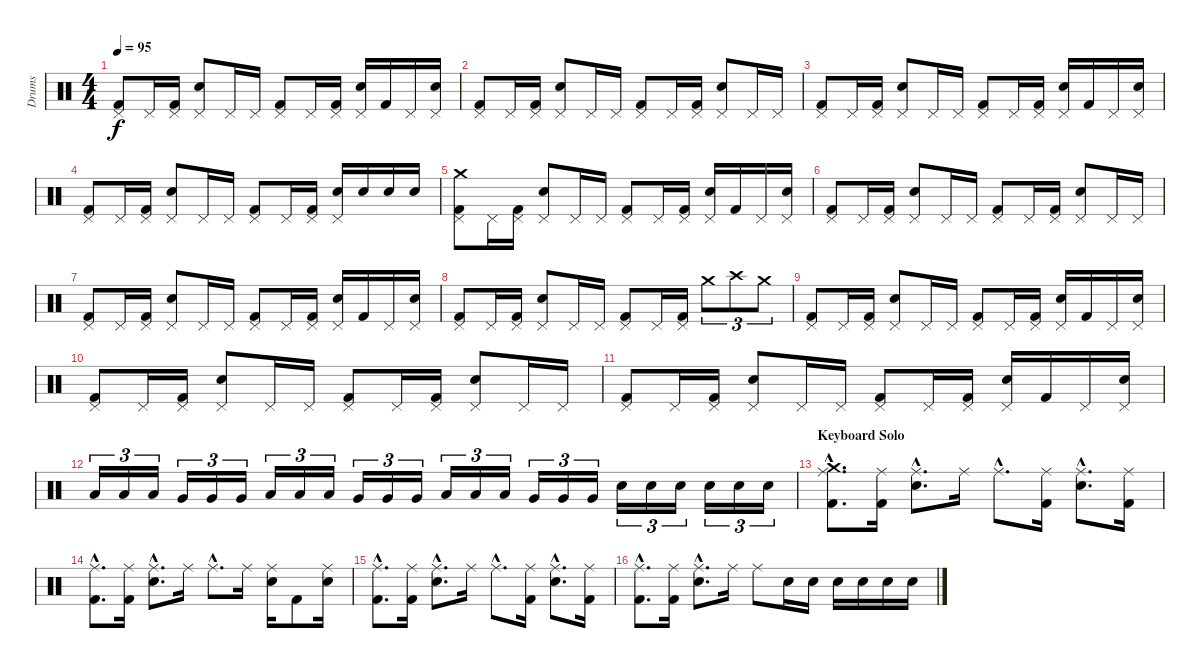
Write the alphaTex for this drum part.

\track ("Drums" "Drums") {instrument percussion}
\staff {score}
\articulation defaults
\ts (4 4)
\tempo 95
\clef neutral
\ks c
("Pedal Hi-Hat (hit)" "Kick (hit) 2").8{dy f} "Pedal Hi-Hat (hit)".16 ("Pedal Hi-Hat (hit)" "Kick (hit) 2").16 ("Pedal Hi-Hat (hit)" "Snare (hit) 2").8 "Pedal Hi-Hat (hit)".16 "Pedal Hi-Hat (hit)".16 ("Pedal Hi-Hat (hit)" "Kick (hit) 2").8 "Pedal Hi-Hat (hit)".16 ("Pedal Hi-Hat (hit)" "Kick (hit) 2").16 ("Pedal Hi-Hat (hit)" "Snare (hit) 2").16 "Kick (hit) 2".16 "Pedal Hi-Hat (hit)".16 ("Pedal Hi-Hat (hit)" "Snare (hit) 2").16 |
("Pedal Hi-Hat (hit)" "Kick (hit) 2").8 "Pedal Hi-Hat (hit)".16 ("Pedal Hi-Hat (hit)" "Kick (hit) 2").16 ("Pedal Hi-Hat (hit)" "Snare (hit) 2").8 "Pedal Hi-Hat (hit)".16 "Pedal Hi-Hat (hit)".16 ("Pedal Hi-Hat (hit)" "Kick (hit) 2").8 "Pedal Hi-Hat (hit)".16 ("Pedal Hi-Hat (hit)" "Kick (hit) 2").16 ("Pedal Hi-Hat (hit)" "Snare (hit) 2").8 "Pedal Hi-Hat (hit)".16 "Pedal Hi-Hat (hit)".16 |
("Pedal Hi-Hat (hit)" "Kick (hit) 2").8 "Pedal Hi-Hat (hit)".16 ("Pedal Hi-Hat (hit)" "Kick (hit) 2").16 ("Pedal Hi-Hat (hit)" "Snare (hit) 2").8 "Pedal Hi-Hat (hit)".16 "Pedal Hi-Hat (hit)".16 ("Pedal Hi-Hat (hit)" "Kick (hit) 2").8 "Pedal Hi-Hat (hit)".16 ("Pedal Hi-Hat (hit)" "Kick (hit) 2").16 ("Pedal Hi-Hat (hit)" "Snare (hit) 2").16 "Kick (hit) 2".16 "Pedal Hi-Hat (hit)".16 ("Pedal Hi-Hat (hit)" "Snare (hit) 2").16 |
("Pedal Hi-Hat (hit)" "Kick (hit) 2").8 "Pedal Hi-Hat (hit)".16 ("Pedal Hi-Hat (hit)" "Kick (hit) 2").16 ("Pedal Hi-Hat (hit)" "Snare (hit) 2").8 "Pedal Hi-Hat (hit)".16 "Pedal Hi-Hat (hit)".16 ("Pedal Hi-Hat (hit)" "Kick (hit) 2").8 "Pedal Hi-Hat (hit)".16 ("Pedal Hi-Hat (hit)" "Kick (hit) 2").16 ("Pedal Hi-Hat (hit)" "Snare (hit) 2").16 "Snare (hit) 2".16 "Snare (hit) 2".16 "Snare (hit) 2".16 |
("Crash medium (hit)" "Pedal Hi-Hat (hit)" "Kick (hit) 2").8 "Pedal Hi-Hat (hit)".16 ("Pedal Hi-Hat (hit)" "Kick (hit) 2").16 ("Pedal Hi-Hat (hit)" "Snare (hit) 2").8 "Pedal Hi-Hat (hit)".16 "Pedal Hi-Hat (hit)".16 ("Pedal Hi-Hat (hit)" "Kick (hit) 2").8 "Pedal Hi-Hat (hit)".16 ("Pedal Hi-Hat (hit)" "Kick (hit) 2").16 ("Pedal Hi-Hat (hit)" "Snare (hit) 2").16 "Kick (hit) 2".16 "Pedal Hi-Hat (hit)".16 ("Pedal Hi-Hat (hit)" "Snare (hit) 2").16 |
("Pedal Hi-Hat (hit)" "Kick (hit) 2").8 "Pedal Hi-Hat (hit)".16 ("Pedal Hi-Hat (hit)" "Kick (hit) 2").16 ("Pedal Hi-Hat (hit)" "Snare (hit) 2").8 "Pedal Hi-Hat (hit)".16 "Pedal Hi-Hat (hit)".16 ("Pedal Hi-Hat (hit)" "Kick (hit) 2").8 "Pedal Hi-Hat (hit)".16 ("Pedal Hi-Hat (hit)" "Kick (hit) 2").16 ("Pedal Hi-Hat (hit)" "Snare (hit) 2").8 "Pedal Hi-Hat (hit)".16 "Pedal Hi-Hat (hit)".16 |
("Pedal Hi-Hat (hit)" "Kick (hit) 2").8 "Pedal Hi-Hat (hit)".16 ("Pedal Hi-Hat (hit)" "Kick (hit) 2").16 ("Pedal Hi-Hat (hit)" "Snare (hit) 2").8 "Pedal Hi-Hat (hit)".16 "Pedal Hi-Hat (hit)".16 ("Pedal Hi-Hat (hit)" "Kick (hit) 2").8 "Pedal Hi-Hat (hit)".16 ("Pedal Hi-Hat (hit)" "Kick (hit) 2").16 ("Pedal Hi-Hat (hit)" "Snare (hit) 2").16 "Kick (hit) 2".16 "Pedal Hi-Hat (hit)".16 ("Pedal Hi-Hat (hit)" "Snare (hit) 2").16 |
("Pedal Hi-Hat (hit)" "Kick (hit) 2").8 "Pedal Hi-Hat (hit)".16 ("Pedal Hi-Hat (hit)" "Kick (hit) 2").16 ("Pedal Hi-Hat (hit)" "Snare (hit) 2").8 "Pedal Hi-Hat (hit)".16 "Pedal Hi-Hat (hit)".16 ("Pedal Hi-Hat (hit)" "Kick (hit) 2").8 "Pedal Hi-Hat (hit)".16 ("Pedal Hi-Hat (hit)" "Kick (hit) 2").16 "Crash medium (hit)".8{tu (3 2)} "Crash high (hit)".8{tu (3 2)} "Crash medium (hit)".8{tu (3 2)} |
("Pedal Hi-Hat (hit)" "Kick (hit) 2").8 "Pedal Hi-Hat (hit)".16 ("Pedal Hi-Hat (hit)" "Kick (hit) 2").16 ("Pedal Hi-Hat (hit)" "Snare (hit) 2").8 "Pedal Hi-Hat (hit)".16 "Pedal Hi-Hat (hit)".16 ("Pedal Hi-Hat (hit)" "Kick (hit) 2").8 "Pedal Hi-Hat (hit)".16 ("Pedal Hi-Hat (hit)" "Kick (hit) 2").16 ("Pedal Hi-Hat (hit)" "Snare (hit) 2").16 "Kick (hit) 2".16 "Pedal Hi-Hat (hit)".16 ("Pedal Hi-Hat (hit)" "Snare (hit) 2").16 |
("Pedal Hi-Hat (hit)" "Kick (hit) 2").8 "Pedal Hi-Hat (hit)".16 ("Pedal Hi-Hat (hit)" "Kick (hit) 2").16 ("Pedal Hi-Hat (hit)" "Snare (hit) 2").8 "Pedal Hi-Hat (hit)".16 "Pedal Hi-Hat (hit)".16 ("Pedal Hi-Hat (hit)" "Kick (hit) 2").8 "Pedal Hi-Hat (hit)".16 ("Pedal Hi-Hat (hit)" "Kick (hit) 2").16 ("Pedal Hi-Hat (hit)" "Snare (hit) 2").8 "Pedal Hi-Hat (hit)".16 "Pedal Hi-Hat (hit)".16 |
("Pedal Hi-Hat (hit)" "Kick (hit) 2").8 "Pedal Hi-Hat (hit)".16 ("Pedal Hi-Hat (hit)" "Kick (hit) 2").16 ("Pedal Hi-Hat (hit)" "Snare (hit) 2").8 "Pedal Hi-Hat (hit)".16 "Pedal Hi-Hat (hit)".16 ("Pedal Hi-Hat (hit)" "Kick (hit) 2").8 "Pedal Hi-Hat (hit)".16 ("Pedal Hi-Hat (hit)" "Kick (hit) 2").16 ("Pedal Hi-Hat (hit)" "Snare (hit) 2").16 "Kick (hit) 2".16 "Pedal Hi-Hat (hit)".16 ("Pedal Hi-Hat (hit)" "Snare (hit) 2").16 |
"Low Tom (hit)".16{tu (3 2)} "Low Tom (hit)".16{tu (3 2)} "Low Tom (hit)".16{tu (3 2)} "Very Low Tom (hit)".16{tu (3 2)} "Very Low Tom (hit)".16{tu (3 2)} "Very Low Tom (hit)".16{tu (3 2)} "Low Tom (hit)".16{tu (3 2)} "Low Tom (hit)".16{tu (3 2)} "Low Tom (hit)".16{tu (3 2)} "Very Low Tom (hit)".16{tu (3 2)} "Very Low Tom (hit)".16{tu (3 2)} "Very Low Tom (hit)".16{tu (3 2)} "Low Tom (hit)".16{tu (3 2)} "Low Tom (hit)".16{tu (3 2)} "Low Tom (hit)".16{tu (3 2)} "Very Low Tom (hit)".16{tu (3 2)} "Very Low Tom (hit)".16{tu (3 2)} "Very Low Tom (hit)".16{tu (3 2)} "Snare (hit) 2".16{tu (3 2)} "Snare (hit) 2".16{tu (3 2)} "Snare (hit) 2".16{tu (3 2)} "Snare (hit) 2".16{tu (3 2)} "Snare (hit) 2".16{tu (3 2)} "Snare (hit) 2".16{tu (3 2)} |
\section ("" "Keyboard Solo")
("Ride (middle)"{hac} "Crash medium (hit)"{hac} "Kick (hit) 2"{hac}).8{d} ("Ride (middle)" "Kick (hit) 2").16 ("Ride (middle)"{hac} "Snare (hit) 2"{hac}).8{d} "Ride (middle)".16 "Ride (middle)"{hac}.8{d} ("Ride (middle)" "Kick (hit) 2").16 ("Ride (middle)"{hac} "Snare (hit) 2"{hac}).8{d} ("Ride (middle)" "Kick (hit) 2").16 |
("Ride (middle)"{hac} "Kick (hit) 2"{hac}).8{d} ("Ride (middle)" "Kick (hit) 2").16 ("Ride (middle)"{hac} "Snare (hit) 2"{hac}).8{d} "Ride (middle)".16 "Ride (middle)"{hac}.8{d} "Ride (middle)".16 ("Ride (middle)" "Snare (hit) 2").16 "Kick (hit) 2".8 ("Ride (middle)" "Snare (hit) 2").16 |
("Ride (middle)"{hac} "Kick (hit) 2"{hac}).8{d} ("Ride (middle)" "Kick (hit) 2").16 ("Ride (middle)"{hac} "Snare (hit) 2"{hac}).8{d} "Ride (middle)".16 "Ride (middle)"{hac}.8{d} ("Ride (middle)" "Kick (hit) 2").16 ("Ride (middle)"{hac} "Snare (hit) 2"{hac}).8{d} ("Ride (middle)" "Kick (hit) 2").16 |
("Ride (middle)"{hac} "Kick (hit) 2"{hac}).8{d} ("Ride (middle)" "Kick (hit) 2").16 ("Ride (middle)"{hac} "Snare (hit) 2"{hac}).8{d} "Ride (middle)".16 "Ride (middle)".8 "Snare (hit) 2".16 "Snare (hit) 2".16 "Snare (hit) 2".16 "Snare (hit) 2".16 "Snare (hit) 2".16 "Snare (hit) 2".16
